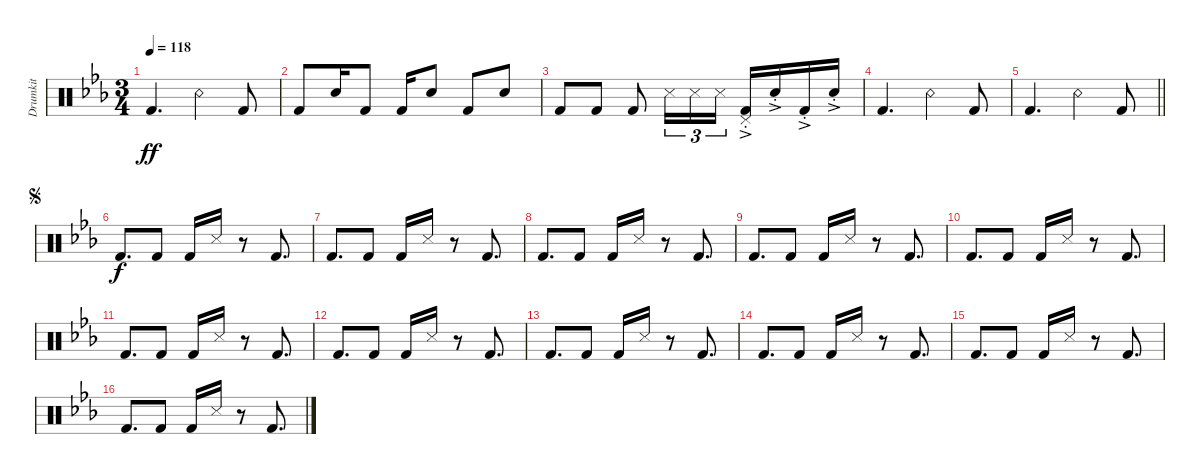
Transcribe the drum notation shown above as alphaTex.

\track ("Drumkit" "Drumkit") {instrument percussion}
\staff {score}
\articulation defaults
\ts (3 4)
\tempo 118
\clef neutral
\ks cminor "Kick (hit) 2".4{d dy ff} "Snare (rim shot)".4 "Kick (hit) 2".8
|
"Kick (hit) 2".8 "Snare (hit) 2".16 "Kick (hit) 2".8 "Kick (hit) 2".16 "Snare (hit) 2".8 "Kick (hit) 2".8 "Snare (hit) 2".8 |
"Kick (hit) 2".8 "Kick (hit) 2".8 "Kick (hit) 2".8 "Snare (side stick) 3".16{tu (3 2)} "Snare (side stick) 3".16{tu (3 2)} "Snare (side stick) 3".16{tu (3 2)} ("Pedal Hi-Hat (hit)"{ac st} "Kick (hit) 2"{ac st}).16 "Snare (hit) 2"{ac st}.16 "Kick (hit) 2"{ac st}.16 "Snare (hit) 2"{ac st}.16 |
"Kick (hit) 2".4{d} "Snare (rim shot)".4 "Kick (hit) 2".8 |
\barLineRight lightlight "Kick (hit) 2".4{d} "Snare (rim shot)".4 "Kick (hit) 2".8
|
\jump segno "Kick (hit) 2".8{d dy f} "Kick (hit) 2".8 "Kick (hit) 2".16 "Snare (side stick) 3".16
r.8 "Kick (hit) 2".8{d} |
"Kick (hit) 2".8{d} "Kick (hit) 2".8 "Kick (hit) 2".16 "Snare (side stick) 3".16 r.8 "Kick (hit) 2".8{d} |
"Kick (hit) 2".8{d} "Kick (hit) 2".8 "Kick (hit) 2".16 "Snare (side stick) 3".16 r.8 "Kick (hit) 2".8{d} |
"Kick (hit) 2".8{d} "Kick (hit) 2".8 "Kick (hit) 2".16 "Snare (side stick) 3".16 r.8 "Kick (hit) 2".8{d} |
"Kick (hit) 2".8{d} "Kick (hit) 2".8 "Kick (hit) 2".16 "Snare (side stick) 3".16 r.8 "Kick (hit) 2".8{d} |
"Kick (hit) 2".8{d} "Kick (hit) 2".8 "Kick (hit) 2".16 "Snare (side stick) 3".16 r.8 "Kick (hit) 2".8{d} |
"Kick (hit) 2".8{d} "Kick (hit) 2".8 "Kick (hit) 2".16 "Snare (side stick) 3".16 r.8 "Kick (hit) 2".8{d} |
"Kick (hit) 2".8{d} "Kick (hit) 2".8 "Kick (hit) 2".16 "Snare (side stick) 3".16 r.8 "Kick (hit) 2".8{d} |
"Kick (hit) 2".8{d} "Kick (hit) 2".8 "Kick (hit) 2".16 "Snare (side stick) 3".16 r.8 "Kick (hit) 2".8{d} |
"Kick (hit) 2".8{d} "Kick (hit) 2".8 "Kick (hit) 2".16 "Snare (side stick) 3".16 r.8 "Kick (hit) 2".8{d} |
"Kick (hit) 2".8{d} "Kick (hit) 2".8 "Kick (hit) 2".16 "Snare (side stick) 3".16 r.8 "Kick (hit) 2".8{d}
